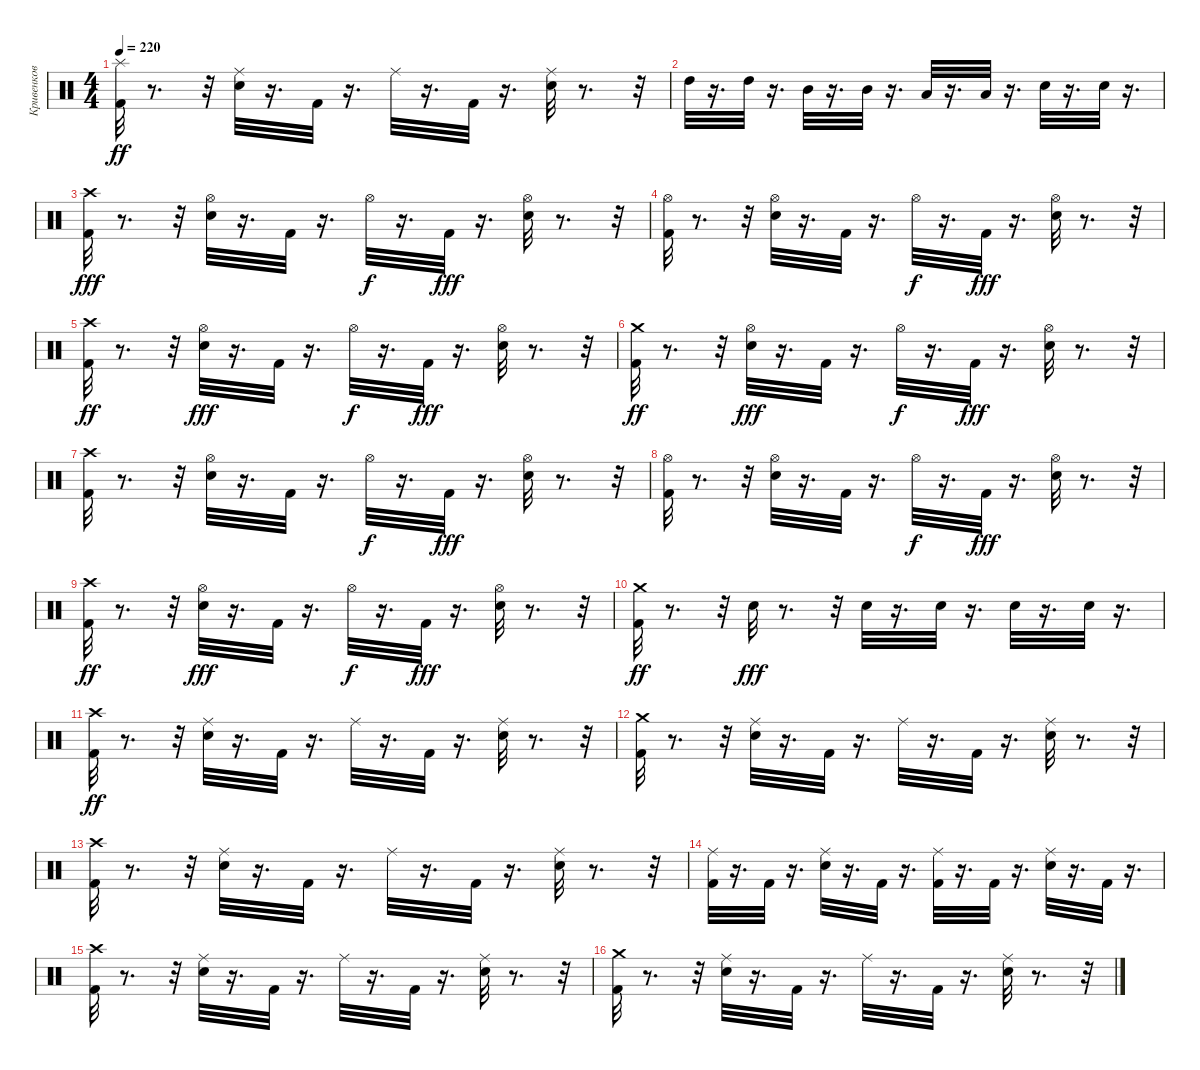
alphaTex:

\track ("Кривенков" "Кривенков") {instrument percussion}
\staff {score}
\articulation defaults
\ts (4 4)
\tempo 220
\clef neutral
\ks c
("Splash (hit)" "Kick (hit) 2").32{dy ff} r.8{d} r.32 ("Ride (middle)" "Electric Snare (hit)").32 r.16{d} "Kick (hit) 2".32 r.16{d} "Ride (middle)".32 r.16{d} "Kick (hit) 2".32 r.16{d} ("Ride (middle)" "Electric Snare (hit)").32 r.8{d} r.32 |
"High Tom (hit)".32 r.16{d} "High Tom (hit)".32 r.16{d} "Mid Tom (hit)".32 r.16{d} "Mid Tom (hit)".32 r.16{d} "Low Tom (hit)".32 r.16{d} "Low Tom (hit)".32 r.16{d} "Electric Snare (hit)".32 r.16{d} "Electric Snare (hit)".32 r.16{d} |
("Crash high (hit)" "Kick (hit) 2").32{dy fff} r.8{d} r.32 ("Hi-Hat (open)" "Electric Snare (hit)").32 r.16{d} "Kick (hit) 2".32 r.16{d} "Hi-Hat (open)".32{dy f} r.16{d} "Kick (hit) 2".32{dy fff} r.16{d} ("Hi-Hat (open)" "Electric Snare (hit)").32 r.8{d} r.32 |
("Hi-Hat (open)" "Kick (hit) 2").32 r.8{d} r.32 ("Hi-Hat (open)" "Electric Snare (hit)").32 r.16{d} "Kick (hit) 2".32 r.16{d} "Hi-Hat (open)".32{dy f} r.16{d} "Kick (hit) 2".32{dy fff} r.16{d} ("Hi-Hat (open)" "Electric Snare (hit)").32 r.8{d} r.32 |
("Kick (hit) 2" "Crash high (hit)").32{dy ff} r.8{d} r.32 ("Electric Snare (hit)" "Hi-Hat (open)").32{dy fff} r.16{d} "Kick (hit) 2".32 r.16{d} "Hi-Hat (open)".32{dy f} r.16{d} "Kick (hit) 2".32{dy fff} r.16{d} ("Electric Snare (hit)" "Hi-Hat (open)").32 r.8{d} r.32 |
("Kick (hit) 2" "Crash medium (hit)").32{dy ff} r.8{d} r.32 ("Electric Snare (hit)" "Hi-Hat (open)").32{dy fff} r.16{d} "Kick (hit) 2".32 r.16{d} "Hi-Hat (open)".32{dy f} r.16{d} "Kick (hit) 2".32{dy fff} r.16{d} ("Electric Snare (hit)" "Hi-Hat (open)").32 r.8{d} r.32 |
("Crash high (hit)" "Kick (hit) 2").32 r.8{d} r.32 ("Hi-Hat (open)" "Electric Snare (hit)").32 r.16{d} "Kick (hit) 2".32 r.16{d} "Hi-Hat (open)".32{dy f} r.16{d} "Kick (hit) 2".32{dy fff} r.16{d} ("Hi-Hat (open)" "Electric Snare (hit)").32 r.8{d} r.32 |
("Hi-Hat (open)" "Kick (hit) 2").32 r.8{d} r.32 ("Hi-Hat (open)" "Electric Snare (hit)").32 r.16{d} "Kick (hit) 2".32 r.16{d} "Hi-Hat (open)".32{dy f} r.16{d} "Kick (hit) 2".32{dy fff} r.16{d} ("Hi-Hat (open)" "Electric Snare (hit)").32 r.8{d} r.32 |
("Kick (hit) 2" "Crash high (hit)").32{dy ff} r.8{d} r.32 ("Electric Snare (hit)" "Hi-Hat (open)").32{dy fff} r.16{d} "Kick (hit) 2".32 r.16{d} "Hi-Hat (open)".32{dy f} r.16{d} "Kick (hit) 2".32{dy fff} r.16{d} ("Electric Snare (hit)" "Hi-Hat (open)").32 r.8{d} r.32 |
("Kick (hit) 2" "Crash medium (hit)").32{dy ff} r.8{d} r.32 "Electric Snare (hit)".32{dy fff} r.8{d} r.32 "Electric Snare (hit)".32 r.16{d} "Electric Snare (hit)".32 r.16{d} "Electric Snare (hit)".32 r.16{d} "Electric Snare (hit)".32 r.16{d} |
("Kick (hit) 2" "Crash high (hit)").32{dy ff} r.8{d} r.32 ("Ride (middle)" "Electric Snare (hit)").32 r.16{d} "Kick (hit) 2".32 r.16{d} "Ride (middle)".32 r.16{d} "Kick (hit) 2".32 r.16{d} ("Ride (middle)" "Electric Snare (hit)").32 r.8{d} r.32 |
("Crash medium (hit)" "Kick (hit) 2").32 r.8{d} r.32 ("Electric Snare (hit)" "Ride (middle)").32 r.16{d} "Kick (hit) 2".32 r.16{d} "Ride (middle)".32 r.16{d} "Kick (hit) 2".32 r.16{d} ("Electric Snare (hit)" "Ride (middle)").32 r.8{d} r.32 |
("Kick (hit) 2" "Crash high (hit)").32 r.8{d} r.32 ("Electric Snare (hit)" "Ride (middle)").32 r.16{d} "Kick (hit) 2".32 r.16{d} "Ride (middle)".32 r.16{d} "Kick (hit) 2".32 r.16{d} ("Electric Snare (hit)" "Ride (middle)").32 r.8{d} r.32 |
("Ride (middle)" "Kick (hit) 2").32 r.16{d} "Kick (hit) 2".32 r.16{d} ("Ride (middle)" "Electric Snare (hit)").32 r.16{d} "Kick (hit) 2".32 r.16{d} ("Ride (middle)" "Kick (hit) 2").32 r.16{d} "Kick (hit) 2".32 r.16{d} ("Ride (middle)" "Electric Snare (hit)").32 r.16{d} "Kick (hit) 2".32 r.16{d} |
("Kick (hit) 2" "Crash high (hit)").32 r.8{d} r.32 ("Ride (middle)" "Electric Snare (hit)").32 r.16{d} "Kick (hit) 2".32 r.16{d} "Ride (middle)".32 r.16{d} "Kick (hit) 2".32 r.16{d} ("Ride (middle)" "Electric Snare (hit)").32 r.8{d} r.32 |
("Crash medium (hit)" "Kick (hit) 2").32 r.8{d} r.32 ("Electric Snare (hit)" "Ride (middle)").32 r.16{d} "Kick (hit) 2".32 r.16{d} "Ride (middle)".32 r.16{d} "Kick (hit) 2".32 r.16{d} ("Electric Snare (hit)" "Ride (middle)").32 r.8{d} r.32
